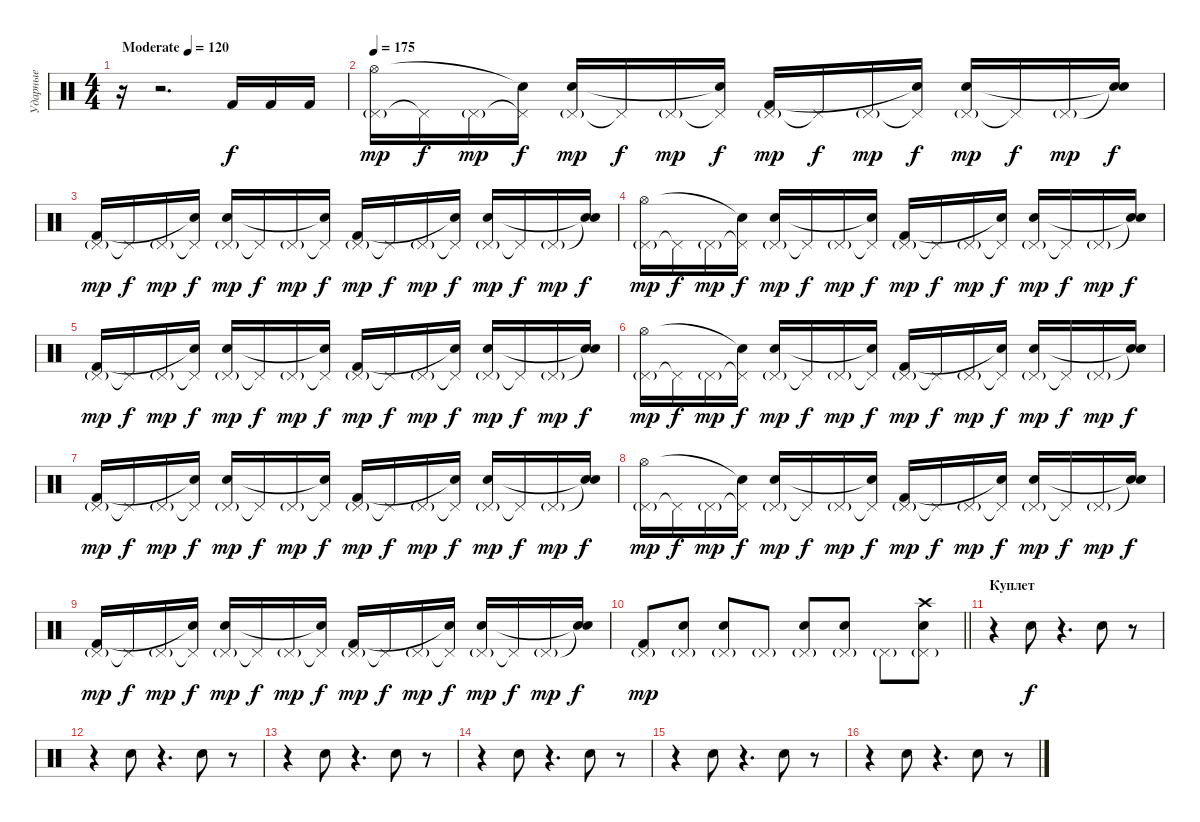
\track ("Ударные" "Ударные") {instrument percussion}
\staff {score}
\articulation defaults
\ts (4 4)
\tempo (120 "Moderate")
\clef neutral
\ks c
r.16{dy f} r.2{d} "Kick (hit) 2".16 "Kick (hit) 2".16 "Kick (hit) 2".16 |
\tempo 175
("Pedal Hi-Hat (hit)"{g} "Hi-Hat (open)").16{dy mp} "Pedal Hi-Hat (hit)"{t}.16{dy f} "Pedal Hi-Hat (hit)"{g}.16{dy mp} ("Pedal Hi-Hat (hit)"{t} "Snare (hit)"{t}).16{dy f} ("Pedal Hi-Hat (hit)"{g} "Electric Snare (hit)").16{dy mp} "Pedal Hi-Hat (hit)"{t}.16{dy f} "Pedal Hi-Hat (hit)"{g}.16{dy mp} ("Pedal Hi-Hat (hit)"{t} "Snare (hit)"{t}).16{dy f} ("Pedal Hi-Hat (hit)"{g} "Kick (hit) 2").16{dy mp} "Pedal Hi-Hat (hit)"{t}.16{dy f} "Pedal Hi-Hat (hit)"{g}.16{dy mp} ("Pedal Hi-Hat (hit)"{t} "Snare (hit)"{t}).16{dy f} ("Pedal Hi-Hat (hit)"{g} "Electric Snare (hit)").16{dy mp} "Pedal Hi-Hat (hit)"{t}.16{dy f} "Pedal Hi-Hat (hit)"{g}.16{dy mp} ("Snare (hit)"{t} "Snare (hit)"{t}).16{dy f} |
("Pedal Hi-Hat (hit)"{g} "Kick (hit) 2").16{dy mp} "Pedal Hi-Hat (hit)"{t}.16{dy f} "Pedal Hi-Hat (hit)"{g}.16{dy mp} ("Pedal Hi-Hat (hit)"{t} "Snare (hit)"{t}).16{dy f} ("Pedal Hi-Hat (hit)"{g} "Electric Snare (hit)").16{dy mp} "Pedal Hi-Hat (hit)"{t}.16{dy f} "Pedal Hi-Hat (hit)"{g}.16{dy mp} ("Pedal Hi-Hat (hit)"{t} "Snare (hit)"{t}).16{dy f} ("Pedal Hi-Hat (hit)"{g} "Kick (hit) 2").16{dy mp} "Pedal Hi-Hat (hit)"{t}.16{dy f} "Pedal Hi-Hat (hit)"{g}.16{dy mp} ("Pedal Hi-Hat (hit)"{t} "Snare (hit)"{t}).16{dy f} ("Pedal Hi-Hat (hit)"{g} "Electric Snare (hit)").16{dy mp} "Pedal Hi-Hat (hit)"{t}.16{dy f} "Pedal Hi-Hat (hit)"{g}.16{dy mp} ("Snare (hit)"{t} "Snare (hit)"{t}).16{dy f} |
("Pedal Hi-Hat (hit)"{g} "Hi-Hat (open)").16{dy mp} "Pedal Hi-Hat (hit)"{t}.16{dy f} "Pedal Hi-Hat (hit)"{g}.16{dy mp} ("Pedal Hi-Hat (hit)"{t} "Snare (hit)"{t}).16{dy f} ("Pedal Hi-Hat (hit)"{g} "Electric Snare (hit)").16{dy mp} "Pedal Hi-Hat (hit)"{t}.16{dy f} "Pedal Hi-Hat (hit)"{g}.16{dy mp} ("Pedal Hi-Hat (hit)"{t} "Snare (hit)"{t}).16{dy f} ("Pedal Hi-Hat (hit)"{g} "Kick (hit) 2").16{dy mp} "Pedal Hi-Hat (hit)"{t}.16{dy f} "Pedal Hi-Hat (hit)"{g}.16{dy mp} ("Pedal Hi-Hat (hit)"{t} "Snare (hit)"{t}).16{dy f} ("Pedal Hi-Hat (hit)"{g} "Electric Snare (hit)").16{dy mp} "Pedal Hi-Hat (hit)"{t}.16{dy f} "Pedal Hi-Hat (hit)"{g}.16{dy mp} ("Snare (hit)"{t} "Snare (hit)"{t}).16{dy f} |
("Pedal Hi-Hat (hit)"{g} "Kick (hit) 2").16{dy mp} "Pedal Hi-Hat (hit)"{t}.16{dy f} "Pedal Hi-Hat (hit)"{g}.16{dy mp} ("Pedal Hi-Hat (hit)"{t} "Snare (hit)"{t}).16{dy f} ("Pedal Hi-Hat (hit)"{g} "Electric Snare (hit)").16{dy mp} "Pedal Hi-Hat (hit)"{t}.16{dy f} "Pedal Hi-Hat (hit)"{g}.16{dy mp} ("Pedal Hi-Hat (hit)"{t} "Snare (hit)"{t}).16{dy f} ("Pedal Hi-Hat (hit)"{g} "Kick (hit) 2").16{dy mp} "Pedal Hi-Hat (hit)"{t}.16{dy f} "Pedal Hi-Hat (hit)"{g}.16{dy mp} ("Pedal Hi-Hat (hit)"{t} "Snare (hit)"{t}).16{dy f} ("Pedal Hi-Hat (hit)"{g} "Electric Snare (hit)").16{dy mp} "Pedal Hi-Hat (hit)"{t}.16{dy f} "Pedal Hi-Hat (hit)"{g}.16{dy mp} ("Snare (hit)"{t} "Snare (hit)"{t}).16{dy f} |
("Pedal Hi-Hat (hit)"{g} "Hi-Hat (open)").16{dy mp} "Pedal Hi-Hat (hit)"{t}.16{dy f} "Pedal Hi-Hat (hit)"{g}.16{dy mp} ("Pedal Hi-Hat (hit)"{t} "Snare (hit)"{t}).16{dy f} ("Pedal Hi-Hat (hit)"{g} "Electric Snare (hit)").16{dy mp} "Pedal Hi-Hat (hit)"{t}.16{dy f} "Pedal Hi-Hat (hit)"{g}.16{dy mp} ("Pedal Hi-Hat (hit)"{t} "Snare (hit)"{t}).16{dy f} ("Pedal Hi-Hat (hit)"{g} "Kick (hit) 2").16{dy mp} "Pedal Hi-Hat (hit)"{t}.16{dy f} "Pedal Hi-Hat (hit)"{g}.16{dy mp} ("Pedal Hi-Hat (hit)"{t} "Snare (hit)"{t}).16{dy f} ("Pedal Hi-Hat (hit)"{g} "Electric Snare (hit)").16{dy mp} "Pedal Hi-Hat (hit)"{t}.16{dy f} "Pedal Hi-Hat (hit)"{g}.16{dy mp} ("Snare (hit)"{t} "Snare (hit)"{t}).16{dy f} |
("Pedal Hi-Hat (hit)"{g} "Kick (hit) 2").16{dy mp} "Pedal Hi-Hat (hit)"{t}.16{dy f} "Pedal Hi-Hat (hit)"{g}.16{dy mp} ("Pedal Hi-Hat (hit)"{t} "Snare (hit)"{t}).16{dy f} ("Pedal Hi-Hat (hit)"{g} "Electric Snare (hit)").16{dy mp} "Pedal Hi-Hat (hit)"{t}.16{dy f} "Pedal Hi-Hat (hit)"{g}.16{dy mp} ("Pedal Hi-Hat (hit)"{t} "Snare (hit)"{t}).16{dy f} ("Pedal Hi-Hat (hit)"{g} "Kick (hit) 2").16{dy mp} "Pedal Hi-Hat (hit)"{t}.16{dy f} "Pedal Hi-Hat (hit)"{g}.16{dy mp} ("Pedal Hi-Hat (hit)"{t} "Snare (hit)"{t}).16{dy f} ("Pedal Hi-Hat (hit)"{g} "Electric Snare (hit)").16{dy mp} "Pedal Hi-Hat (hit)"{t}.16{dy f} "Pedal Hi-Hat (hit)"{g}.16{dy mp} ("Snare (hit)"{t} "Snare (hit)"{t}).16{dy f} |
("Pedal Hi-Hat (hit)"{g} "Hi-Hat (open)").16{dy mp} "Pedal Hi-Hat (hit)"{t}.16{dy f} "Pedal Hi-Hat (hit)"{g}.16{dy mp} ("Pedal Hi-Hat (hit)"{t} "Snare (hit)"{t}).16{dy f} ("Pedal Hi-Hat (hit)"{g} "Electric Snare (hit)").16{dy mp} "Pedal Hi-Hat (hit)"{t}.16{dy f} "Pedal Hi-Hat (hit)"{g}.16{dy mp} ("Pedal Hi-Hat (hit)"{t} "Snare (hit)"{t}).16{dy f} ("Pedal Hi-Hat (hit)"{g} "Kick (hit) 2").16{dy mp} "Pedal Hi-Hat (hit)"{t}.16{dy f} "Pedal Hi-Hat (hit)"{g}.16{dy mp} ("Pedal Hi-Hat (hit)"{t} "Snare (hit)"{t}).16{dy f} ("Pedal Hi-Hat (hit)"{g} "Electric Snare (hit)").16{dy mp} "Pedal Hi-Hat (hit)"{t}.16{dy f} "Pedal Hi-Hat (hit)"{g}.16{dy mp} ("Snare (hit)"{t} "Snare (hit)"{t}).16{dy f} |
("Pedal Hi-Hat (hit)"{g} "Kick (hit) 2").16{dy mp} "Pedal Hi-Hat (hit)"{t}.16{dy f} "Pedal Hi-Hat (hit)"{g}.16{dy mp} ("Pedal Hi-Hat (hit)"{t} "Snare (hit)"{t}).16{dy f} ("Pedal Hi-Hat (hit)"{g} "Electric Snare (hit)").16{dy mp} "Pedal Hi-Hat (hit)"{t}.16{dy f} "Pedal Hi-Hat (hit)"{g}.16{dy mp} ("Pedal Hi-Hat (hit)"{t} "Snare (hit)"{t}).16{dy f} ("Pedal Hi-Hat (hit)"{g} "Kick (hit) 2").16{dy mp} "Pedal Hi-Hat (hit)"{t}.16{dy f} "Pedal Hi-Hat (hit)"{g}.16{dy mp} ("Pedal Hi-Hat (hit)"{t} "Snare (hit)"{t}).16{dy f} ("Pedal Hi-Hat (hit)"{g} "Electric Snare (hit)").16{dy mp} "Pedal Hi-Hat (hit)"{t}.16{dy f} "Pedal Hi-Hat (hit)"{g}.16{dy mp} ("Snare (hit)"{t} "Snare (hit)"{t}).16{dy f} |
\barLineRight lightlight
("Pedal Hi-Hat (hit)"{g} "Kick (hit) 2").8{dy mp} ("Pedal Hi-Hat (hit)"{g} "Electric Snare (hit)").8 ("Pedal Hi-Hat (hit)"{g} "Electric Snare (hit)").8 "Pedal Hi-Hat (hit)"{g}.8 ("Pedal Hi-Hat (hit)"{g} "Electric Snare (hit)").8 ("Pedal Hi-Hat (hit)"{g} "Electric Snare (hit)").8 "Pedal Hi-Hat (hit)"{g}.8 ("Pedal Hi-Hat (hit)"{g} "Electric Snare (hit)" "Crash high (hit)").8 |
\section ("" "Куплет")
r.4 "Electric Snare (hit)".8{dy f} r.4{d} "Electric Snare (hit)".8 r.8 |
r.4 "Electric Snare (hit)".8 r.4{d} "Electric Snare (hit)".8 r.8 |
r.4 "Electric Snare (hit)".8 r.4{d} "Electric Snare (hit)".8 r.8 |
r.4 "Electric Snare (hit)".8 r.4{d} "Electric Snare (hit)".8 r.8 |
r.4 "Electric Snare (hit)".8 r.4{d} "Electric Snare (hit)".8 r.8 |
r.4 "Electric Snare (hit)".8 r.4{d} "Electric Snare (hit)".8 r.8
